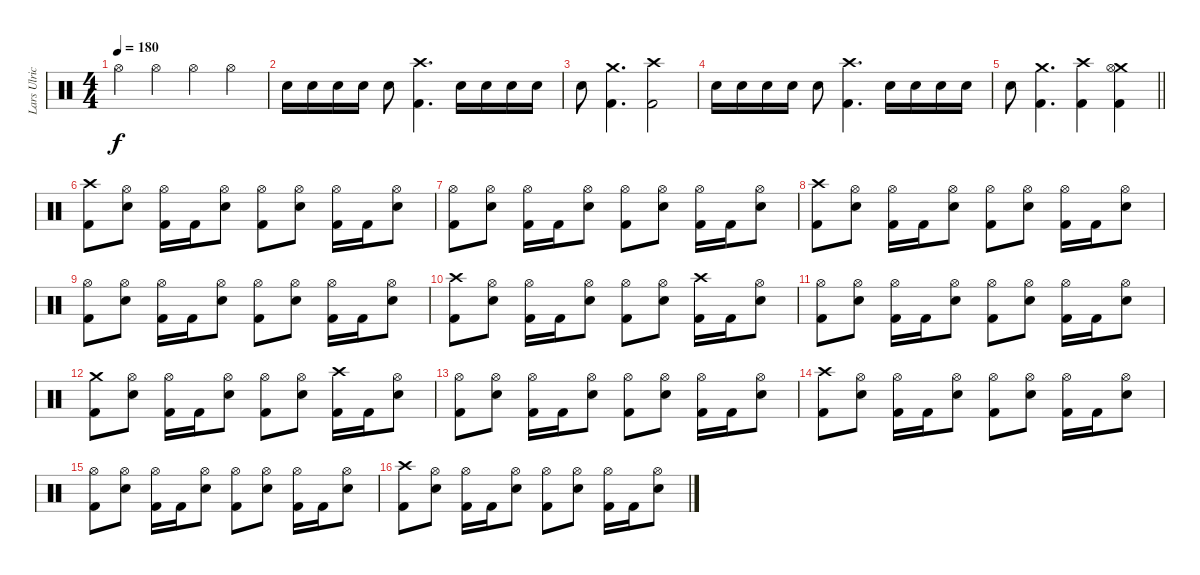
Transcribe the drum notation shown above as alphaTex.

\track ("Lars Ulrich" "Lars Ulric") {instrument percussion}
\staff {score}
\articulation defaults
\ts (4 4)
\tempo 180
\clef neutral
\ks c "Hi-Hat (open)".4{dy f} "Hi-Hat (open)".4 "Hi-Hat (open)".4 "Hi-Hat (open)".4
|
"Electric Snare (hit)".16 "Electric Snare (hit)".16 "Electric Snare (hit)".16 "Electric Snare (hit)".16 "Electric Snare (hit)".8 ("Crash high (hit)" "Kick (hit) 2").4{d} "Electric Snare (hit)".16 "Electric Snare (hit)".16 "Electric Snare (hit)".16 "Electric Snare (hit)".16 |
"Electric Snare (hit)".8 ("Crash medium (hit)" "Kick (hit) 2").4{d} ("Crash high (hit)" "Kick (hit) 2").2 |
"Electric Snare (hit)".16 "Electric Snare (hit)".16 "Electric Snare (hit)".16 "Electric Snare (hit)".16 "Electric Snare (hit)".8 ("Crash high (hit)" "Kick (hit) 2").4{d} "Electric Snare (hit)".16 "Electric Snare (hit)".16 "Electric Snare (hit)".16 "Electric Snare (hit)".16 |
\barLineRight lightlight "Electric Snare (hit)".8
("Crash medium (hit)" "Kick (hit) 2").4{d} ("Crash high (hit)" "Kick (hit) 2").4 ("Crash medium (hit)" "Hi-Hat (open)" "Kick (hit) 2").4 |
\section ("" "")
("Crash high (hit)" "Kick (hit) 2").8 ("Hi-Hat (open)" "Electric Snare (hit)").8 ("Hi-Hat (open)" "Kick (hit) 2").16 "Kick (hit) 2".16 ("Hi-Hat (open)" "Electric Snare (hit)").8 ("Hi-Hat (open)" "Kick (hit) 2").8 ("Hi-Hat (open)" "Electric Snare (hit)").8 ("Hi-Hat (open)" "Kick (hit) 2").16 "Kick (hit) 2".16 ("Hi-Hat (open)" "Electric Snare (hit)").8 |
("Hi-Hat (open)" "Kick (hit) 2").8 ("Hi-Hat (open)" "Electric Snare (hit)").8 ("Hi-Hat (open)" "Kick (hit) 2").16 "Kick (hit) 2".16 ("Hi-Hat (open)" "Electric Snare (hit)").8 ("Hi-Hat (open)" "Kick (hit) 2").8 ("Hi-Hat (open)" "Electric Snare (hit)").8 ("Hi-Hat (open)" "Kick (hit) 2").16 "Kick (hit) 2".16 ("Hi-Hat (open)" "Electric Snare (hit)").8 |
("Crash high (hit)" "Kick (hit) 2").8 ("Hi-Hat (open)" "Electric Snare (hit)").8 ("Hi-Hat (open)" "Kick (hit) 2").16 "Kick (hit) 2".16 ("Hi-Hat (open)" "Electric Snare (hit)").8 ("Hi-Hat (open)" "Kick (hit) 2").8 ("Hi-Hat (open)" "Electric Snare (hit)").8 ("Hi-Hat (open)" "Kick (hit) 2").16 "Kick (hit) 2".16 ("Hi-Hat (open)" "Electric Snare (hit)").8 |
("Hi-Hat (open)" "Kick (hit) 2").8 ("Hi-Hat (open)" "Electric Snare (hit)").8 ("Hi-Hat (open)" "Kick (hit) 2").16 "Kick (hit) 2".16 ("Hi-Hat (open)" "Electric Snare (hit)").8 ("Hi-Hat (open)" "Kick (hit) 2").8 ("Hi-Hat (open)" "Electric Snare (hit)").8 ("Hi-Hat (open)" "Kick (hit) 2").16 "Kick (hit) 2".16 ("Hi-Hat (open)" "Electric Snare (hit)").8 |
("Crash high (hit)" "Kick (hit) 2").8 ("Hi-Hat (open)" "Electric Snare (hit)").8 ("Hi-Hat (open)" "Kick (hit) 2").16 "Kick (hit) 2".16 ("Hi-Hat (open)" "Electric Snare (hit)").8 ("Hi-Hat (open)" "Kick (hit) 2").8 ("Hi-Hat (open)" "Electric Snare (hit)").8 ("Crash high (hit)" "Kick (hit) 2").16 "Kick (hit) 2".16 ("Hi-Hat (open)" "Electric Snare (hit)").8 |
("Hi-Hat (open)" "Kick (hit) 2").8 ("Hi-Hat (open)" "Electric Snare (hit)").8 ("Hi-Hat (open)" "Kick (hit) 2").16 "Kick (hit) 2".16 ("Hi-Hat (open)" "Electric Snare (hit)").8 ("Hi-Hat (open)" "Kick (hit) 2").8 ("Hi-Hat (open)" "Electric Snare (hit)").8 ("Hi-Hat (open)" "Kick (hit) 2").16 "Kick (hit) 2".16 ("Hi-Hat (open)" "Electric Snare (hit)").8 |
("Crash medium (hit)" "Kick (hit) 2").8 ("Hi-Hat (open)" "Electric Snare (hit)").8 ("Hi-Hat (open)" "Kick (hit) 2").16 "Kick (hit) 2".16 ("Hi-Hat (open)" "Electric Snare (hit)").8 ("Hi-Hat (open)" "Kick (hit) 2").8 ("Hi-Hat (open)" "Electric Snare (hit)").8 ("Crash high (hit)" "Kick (hit) 2").16 "Kick (hit) 2".16 ("Hi-Hat (open)" "Electric Snare (hit)").8 |
("Hi-Hat (open)" "Kick (hit) 2").8 ("Hi-Hat (open)" "Electric Snare (hit)").8 ("Hi-Hat (open)" "Kick (hit) 2").16 "Kick (hit) 2".16 ("Hi-Hat (open)" "Electric Snare (hit)").8 ("Hi-Hat (open)" "Kick (hit) 2").8 ("Hi-Hat (open)" "Electric Snare (hit)").8 ("Hi-Hat (open)" "Kick (hit) 2").16 "Kick (hit) 2".16 ("Hi-Hat (open)" "Electric Snare (hit)").8 |
("Crash high (hit)" "Kick (hit) 2").8 ("Hi-Hat (open)" "Electric Snare (hit)").8 ("Hi-Hat (open)" "Kick (hit) 2").16 "Kick (hit) 2".16 ("Hi-Hat (open)" "Electric Snare (hit)").8 ("Hi-Hat (open)" "Kick (hit) 2").8 ("Hi-Hat (open)" "Electric Snare (hit)").8 ("Hi-Hat (open)" "Kick (hit) 2").16 "Kick (hit) 2".16 ("Hi-Hat (open)" "Electric Snare (hit)").8 |
("Hi-Hat (open)" "Kick (hit) 2").8 ("Hi-Hat (open)" "Electric Snare (hit)").8 ("Hi-Hat (open)" "Kick (hit) 2").16 "Kick (hit) 2".16 ("Hi-Hat (open)" "Electric Snare (hit)").8 ("Hi-Hat (open)" "Kick (hit) 2").8 ("Hi-Hat (open)" "Electric Snare (hit)").8 ("Hi-Hat (open)" "Kick (hit) 2").16 "Kick (hit) 2".16 ("Hi-Hat (open)" "Electric Snare (hit)").8 |
("Crash high (hit)" "Kick (hit) 2").8 ("Hi-Hat (open)" "Electric Snare (hit)").8 ("Hi-Hat (open)" "Kick (hit) 2").16 "Kick (hit) 2".16 ("Hi-Hat (open)" "Electric Snare (hit)").8 ("Hi-Hat (open)" "Kick (hit) 2").8 ("Hi-Hat (open)" "Electric Snare (hit)").8 ("Hi-Hat (open)" "Kick (hit) 2").16 "Kick (hit) 2".16 ("Hi-Hat (open)" "Electric Snare (hit)").8
